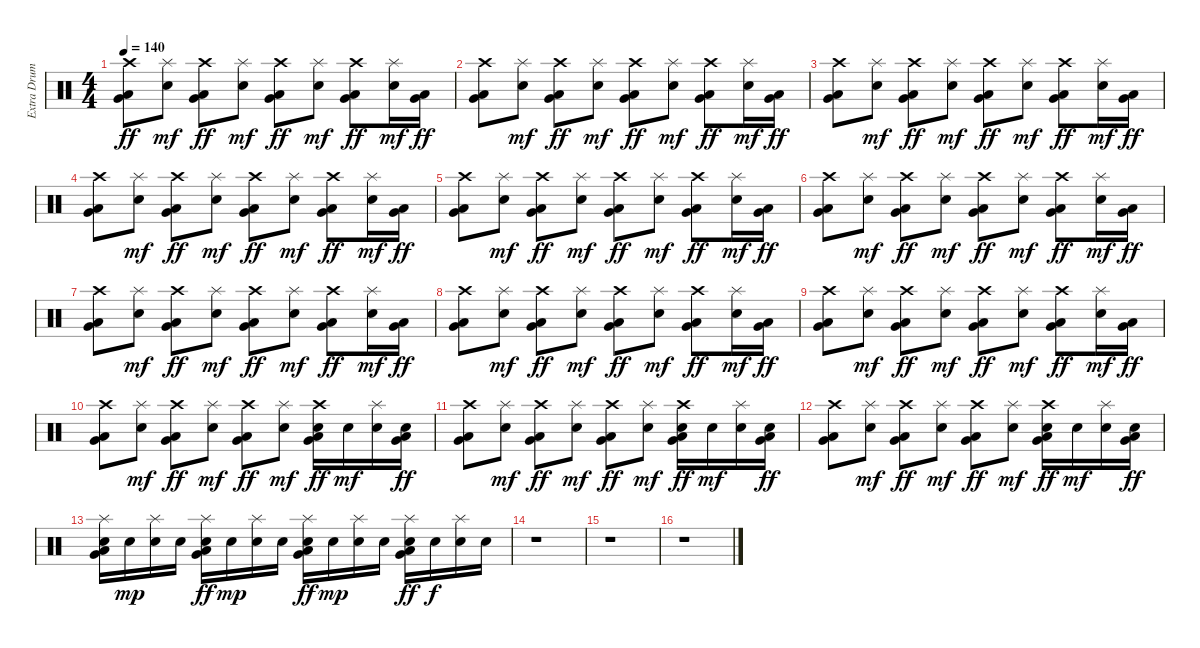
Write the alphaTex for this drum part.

\track ("Extra Drums" "Extra Drum") {instrument percussion}
\staff {score}
\articulation defaults
\ts (4 4)
\tempo 140
\clef neutral
\ks c
("Crash high (hit)" "Low Floor Tom (hit)" "Very Low Tom (hit)").8{dy ff} ("Splash (hit)" "Snare (hit) 2").8{dy mf} ("Crash high (hit)" "Low Floor Tom (hit)" "Very Low Tom (hit)").8{dy ff} ("Splash (hit)" "Snare (hit) 2").8{dy mf} ("Crash high (hit)" "Low Floor Tom (hit)" "Very Low Tom (hit)").8{dy ff} ("Splash (hit)" "Snare (hit) 2").8{dy mf} ("Crash high (hit)" "Low Floor Tom (hit)" "Very Low Tom (hit)").8{dy ff} ("Splash (hit)" "Snare (hit) 2").16{dy mf} ("Low Floor Tom (hit)" "Very Low Tom (hit)").16{dy ff} |
("Crash high (hit)" "Low Floor Tom (hit)" "Very Low Tom (hit)").8 ("Splash (hit)" "Snare (hit) 2").8{dy mf} ("Crash high (hit)" "Low Floor Tom (hit)" "Very Low Tom (hit)").8{dy ff} ("Splash (hit)" "Snare (hit) 2").8{dy mf} ("Crash high (hit)" "Low Floor Tom (hit)" "Very Low Tom (hit)").8{dy ff} ("Splash (hit)" "Snare (hit) 2").8{dy mf} ("Crash high (hit)" "Low Floor Tom (hit)" "Very Low Tom (hit)").8{dy ff} ("Splash (hit)" "Snare (hit) 2").16{dy mf} ("Low Floor Tom (hit)" "Very Low Tom (hit)").16{dy ff} |
("Crash high (hit)" "Low Floor Tom (hit)" "Very Low Tom (hit)").8 ("Splash (hit)" "Snare (hit) 2").8{dy mf} ("Crash high (hit)" "Low Floor Tom (hit)" "Very Low Tom (hit)").8{dy ff} ("Splash (hit)" "Snare (hit) 2").8{dy mf} ("Crash high (hit)" "Low Floor Tom (hit)" "Very Low Tom (hit)").8{dy ff} ("Splash (hit)" "Snare (hit) 2").8{dy mf} ("Crash high (hit)" "Low Floor Tom (hit)" "Very Low Tom (hit)").8{dy ff} ("Splash (hit)" "Snare (hit) 2").16{dy mf} ("Low Floor Tom (hit)" "Very Low Tom (hit)").16{dy ff} |
("Crash high (hit)" "Low Floor Tom (hit)" "Very Low Tom (hit)").8 ("Splash (hit)" "Snare (hit) 2").8{dy mf} ("Crash high (hit)" "Low Floor Tom (hit)" "Very Low Tom (hit)").8{dy ff} ("Splash (hit)" "Snare (hit) 2").8{dy mf} ("Crash high (hit)" "Low Floor Tom (hit)" "Very Low Tom (hit)").8{dy ff} ("Splash (hit)" "Snare (hit) 2").8{dy mf} ("Crash high (hit)" "Low Floor Tom (hit)" "Very Low Tom (hit)").8{dy ff} ("Splash (hit)" "Snare (hit) 2").16{dy mf} ("Low Floor Tom (hit)" "Very Low Tom (hit)").16{dy ff} |
("Crash high (hit)" "Low Floor Tom (hit)" "Very Low Tom (hit)").8 ("Splash (hit)" "Snare (hit) 2").8{dy mf} ("Crash high (hit)" "Low Floor Tom (hit)" "Very Low Tom (hit)").8{dy ff} ("Splash (hit)" "Snare (hit) 2").8{dy mf} ("Crash high (hit)" "Low Floor Tom (hit)" "Very Low Tom (hit)").8{dy ff} ("Splash (hit)" "Snare (hit) 2").8{dy mf} ("Crash high (hit)" "Low Floor Tom (hit)" "Very Low Tom (hit)").8{dy ff} ("Splash (hit)" "Snare (hit) 2").16{dy mf} ("Low Floor Tom (hit)" "Very Low Tom (hit)").16{dy ff} |
("Crash high (hit)" "Low Floor Tom (hit)" "Very Low Tom (hit)").8 ("Splash (hit)" "Snare (hit) 2").8{dy mf} ("Crash high (hit)" "Low Floor Tom (hit)" "Very Low Tom (hit)").8{dy ff} ("Splash (hit)" "Snare (hit) 2").8{dy mf} ("Crash high (hit)" "Low Floor Tom (hit)" "Very Low Tom (hit)").8{dy ff} ("Splash (hit)" "Snare (hit) 2").8{dy mf} ("Crash high (hit)" "Low Floor Tom (hit)" "Very Low Tom (hit)").8{dy ff} ("Splash (hit)" "Snare (hit) 2").16{dy mf} ("Low Floor Tom (hit)" "Very Low Tom (hit)").16{dy ff} |
("Crash high (hit)" "Low Floor Tom (hit)" "Very Low Tom (hit)").8 ("Splash (hit)" "Snare (hit) 2").8{dy mf} ("Crash high (hit)" "Low Floor Tom (hit)" "Very Low Tom (hit)").8{dy ff} ("Splash (hit)" "Snare (hit) 2").8{dy mf} ("Crash high (hit)" "Low Floor Tom (hit)" "Very Low Tom (hit)").8{dy ff} ("Splash (hit)" "Snare (hit) 2").8{dy mf} ("Crash high (hit)" "Low Floor Tom (hit)" "Very Low Tom (hit)").8{dy ff} ("Splash (hit)" "Snare (hit) 2").16{dy mf} ("Low Floor Tom (hit)" "Very Low Tom (hit)").16{dy ff} |
("Crash high (hit)" "Low Floor Tom (hit)" "Very Low Tom (hit)").8 ("Splash (hit)" "Snare (hit) 2").8{dy mf} ("Crash high (hit)" "Low Floor Tom (hit)" "Very Low Tom (hit)").8{dy ff} ("Splash (hit)" "Snare (hit) 2").8{dy mf} ("Crash high (hit)" "Low Floor Tom (hit)" "Very Low Tom (hit)").8{dy ff} ("Splash (hit)" "Snare (hit) 2").8{dy mf} ("Crash high (hit)" "Low Floor Tom (hit)" "Very Low Tom (hit)").8{dy ff} ("Splash (hit)" "Snare (hit) 2").16{dy mf} ("Low Floor Tom (hit)" "Very Low Tom (hit)").16{dy ff} |
("Crash high (hit)" "Low Floor Tom (hit)" "Very Low Tom (hit)").8 ("Splash (hit)" "Snare (hit) 2").8{dy mf} ("Crash high (hit)" "Low Floor Tom (hit)" "Very Low Tom (hit)").8{dy ff} ("Splash (hit)" "Snare (hit) 2").8{dy mf} ("Crash high (hit)" "Low Floor Tom (hit)" "Very Low Tom (hit)").8{dy ff} ("Splash (hit)" "Snare (hit) 2").8{dy mf} ("Crash high (hit)" "Low Floor Tom (hit)" "Very Low Tom (hit)").8{dy ff} ("Splash (hit)" "Snare (hit) 2").16{dy mf} ("Low Floor Tom (hit)" "Very Low Tom (hit)").16{dy ff} |
("Crash high (hit)" "Low Floor Tom (hit)" "Very Low Tom (hit)").8 ("Splash (hit)" "Snare (hit) 2").8{dy mf} ("Crash high (hit)" "Low Floor Tom (hit)" "Very Low Tom (hit)").8{dy ff} ("Splash (hit)" "Snare (hit) 2").8{dy mf} ("Crash high (hit)" "Low Floor Tom (hit)" "Very Low Tom (hit)").8{dy ff} ("Splash (hit)" "Snare (hit) 2").8{dy mf} ("Crash high (hit)" "Snare (hit) 2" "Low Floor Tom (hit)" "Very Low Tom (hit)").16{dy ff} "Snare (hit) 2".16{dy mf} ("Splash (hit)" "Snare (hit) 2").16 ("Snare (hit) 2" "Low Floor Tom (hit)" "Very Low Tom (hit)").16{dy ff} |
("Crash high (hit)" "Low Floor Tom (hit)" "Very Low Tom (hit)").8 ("Splash (hit)" "Snare (hit) 2").8{dy mf} ("Crash high (hit)" "Low Floor Tom (hit)" "Very Low Tom (hit)").8{dy ff} ("Splash (hit)" "Snare (hit) 2").8{dy mf} ("Crash high (hit)" "Low Floor Tom (hit)" "Very Low Tom (hit)").8{dy ff} ("Splash (hit)" "Snare (hit) 2").8{dy mf} ("Crash high (hit)" "Snare (hit) 2" "Low Floor Tom (hit)" "Very Low Tom (hit)").16{dy ff} "Snare (hit) 2".16{dy mf} ("Splash (hit)" "Snare (hit) 2").16 ("Snare (hit) 2" "Low Floor Tom (hit)" "Very Low Tom (hit)").16{dy ff} |
("Crash high (hit)" "Low Floor Tom (hit)" "Very Low Tom (hit)").8 ("Splash (hit)" "Snare (hit) 2").8{dy mf} ("Crash high (hit)" "Low Floor Tom (hit)" "Very Low Tom (hit)").8{dy ff} ("Splash (hit)" "Snare (hit) 2").8{dy mf} ("Crash high (hit)" "Low Floor Tom (hit)" "Very Low Tom (hit)").8{dy ff} ("Splash (hit)" "Snare (hit) 2").8{dy mf} ("Crash high (hit)" "Snare (hit) 2" "Low Floor Tom (hit)" "Very Low Tom (hit)").16{dy ff} "Snare (hit) 2".16{dy mf} ("Splash (hit)" "Snare (hit) 2").16 ("Snare (hit) 2" "Low Floor Tom (hit)" "Very Low Tom (hit)").16{dy ff} |
("Splash (hit)" "Snare (hit) 2" "Low Floor Tom (hit)" "Very Low Tom (hit)").16 "Snare (hit) 2".16{dy mp} ("Splash (hit)" "Snare (hit) 2").16 "Snare (hit) 2".16 ("Splash (hit)" "Snare (hit) 2" "Low Floor Tom (hit)" "Very Low Tom (hit)").16{dy ff} "Snare (hit) 2".16{dy mp} ("Splash (hit)" "Snare (hit) 2").16 "Snare (hit) 2".16 ("Splash (hit)" "Snare (hit) 2" "Low Floor Tom (hit)" "Very Low Tom (hit)").16{dy ff} "Snare (hit) 2".16{dy mp} ("Splash (hit)" "Snare (hit) 2").16 "Snare (hit) 2".16 ("Splash (hit)" "Snare (hit) 2" "Low Floor Tom (hit)" "Very Low Tom (hit)").16{dy ff} "Snare (hit) 2".16{dy f} ("Splash (hit)" "Snare (hit) 2").16 "Snare (hit) 2".16 |
r.1 |
r.1 |
r.1
